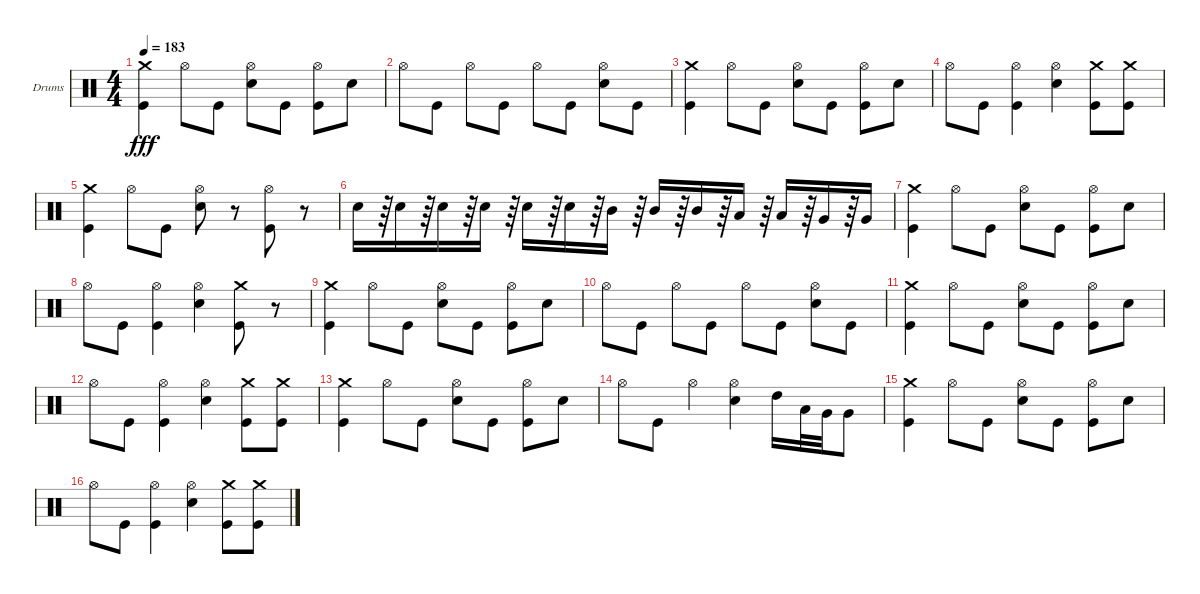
\bracketExtendMode groupsimilarinstruments
\firstSystemTrackNameOrientation horizontal
\otherSystemsTrackNameOrientation horizontal
\track ("Drumkit" "Drums") {instrument percussion}
\staff {score}
\articulation defaults
\ts (4 4)
\tempo 183
\clef neutral
\scale
0.333333
\ks c
("Kick (hit)" "Crash medium (hit)").4{dy fff} "Hi-Hat (open)".8 "Kick (hit)".8 ("Snare (hit) 2" "Hi-Hat (open)").8 "Kick (hit)".8 ("Kick (hit)" "Hi-Hat (open)").8 "Snare (hit) 2".8 |
\scale
0.333333 "Hi-Hat (open)".8 "Kick (hit)".8 "Hi-Hat (open)".8 "Kick (hit)".8 "Hi-Hat (open)".8 "Kick (hit)".8 ("Hi-Hat (open)" "Snare (hit) 2").8 "Kick (hit)".8 |
\scale
0.333333 ("Kick (hit)" "Crash medium (hit)").4 "Hi-Hat (open)".8 "Kick (hit)".8 ("Snare (hit) 2" "Hi-Hat (open)").8 "Kick (hit)".8 ("Kick (hit)" "Hi-Hat (open)").8 "Snare (hit) 2".8 |
\scale
0.333333 "Hi-Hat (open)".8 "Kick (hit)".8 ("Kick (hit)" "Hi-Hat (open)").4 ("Snare (hit) 2" "Hi-Hat (open)").4 ("Kick (hit)" "Crash medium (hit)").8 ("Kick (hit)" "Crash medium (hit)").8 |
\scale
0.333333 ("Kick (hit)" "Crash medium (hit)").4 "Hi-Hat (open)".8 "Kick (hit)".8 ("Snare (hit) 2" "Hi-Hat (open)").8 r.8 ("Hi-Hat (open)" "Kick (hit)").8 r.8 |
\scale
0.333333 "Snare (hit) 2".16 r.64 "Snare (hit) 2".16 r.64 "Snare (hit) 2".16 r.64 "Snare (hit) 2".16 r.64 "Snare (hit) 2".16 r.64 "Snare (hit) 2".16 r.64 "Mid Tom (hit)".16 r.64 "Mid Tom (hit)".16 r.64 "Mid Tom (hit)".16 r.64 "Low Tom (hit)".16 r.64 "Low Tom (hit)".16 r.64 "Very Low Tom (hit)".16 r.64 "Very Low Tom (hit)".16 |
\scale
0.333333 ("Kick (hit)" "Crash medium (hit)").4 "Hi-Hat (open)".8 "Kick (hit)".8 ("Snare (hit) 2" "Hi-Hat (open)").8 "Kick (hit)".8 ("Kick (hit)" "Hi-Hat (open)").8 "Snare (hit) 2".8 |
\scale
0.333333 "Hi-Hat (open)".8 "Kick (hit)".8 ("Kick (hit)" "Hi-Hat (open)").4 ("Snare (hit) 2" "Hi-Hat (open)").4 ("Kick (hit)" "Crash medium (hit)").8 r.8 |
\scale
0.333333 ("Kick (hit)" "Crash medium (hit)").4 "Hi-Hat (open)".8 "Kick (hit)".8 ("Snare (hit) 2" "Hi-Hat (open)").8 "Kick (hit)".8 ("Kick (hit)" "Hi-Hat (open)").8 "Snare (hit) 2".8 |
\scale
0.333333 "Hi-Hat (open)".8 "Kick (hit)".8 "Hi-Hat (open)".8 "Kick (hit)".8 "Hi-Hat (open)".8 "Kick (hit)".8 ("Hi-Hat (open)" "Snare (hit) 2").8 "Kick (hit)".8 |
\scale
0.333333 ("Kick (hit)" "Crash medium (hit)").4 "Hi-Hat (open)".8 "Kick (hit)".8 ("Snare (hit) 2" "Hi-Hat (open)").8 "Kick (hit)".8 ("Kick (hit)" "Hi-Hat (open)").8 "Snare (hit) 2".8 |
\scale
0.333333 "Hi-Hat (open)".8 "Kick (hit)".8 ("Kick (hit)" "Hi-Hat (open)").4 ("Snare (hit) 2" "Hi-Hat (open)").4 ("Kick (hit)" "Crash medium (hit)").8 ("Kick (hit)" "Crash medium (hit)").8 |
\scale
0.333333 ("Kick (hit)" "Crash medium (hit)").4 "Hi-Hat (open)".8 "Kick (hit)".8 ("Snare (hit) 2" "Hi-Hat (open)").8 "Kick (hit)".8 ("Kick (hit)" "Hi-Hat (open)").8 "Snare (hit) 2".8 |
\scale
0.333333 "Hi-Hat (open)".8 "Kick (hit)".8 "Hi-Hat (open)".4 ("Snare (hit) 2" "Hi-Hat (open)").4 "High Tom (hit)".16 "Low Tom (hit)".32 "Very Low Tom (hit)".32 "Very Low Tom (hit)".8 |
\scale
0.333333 ("Kick (hit)" "Crash medium (hit)").4 "Hi-Hat (open)".8 "Kick (hit)".8 ("Snare (hit) 2" "Hi-Hat (open)").8 "Kick (hit)".8 ("Kick (hit)" "Hi-Hat (open)").8 "Snare (hit) 2".8 |
\scale
0.333333 "Hi-Hat (open)".8 "Kick (hit)".8 ("Kick (hit)" "Hi-Hat (open)").4 ("Snare (hit) 2" "Hi-Hat (open)").4 ("Kick (hit)" "Crash medium (hit)").8 ("Kick (hit)" "Crash medium (hit)").8
